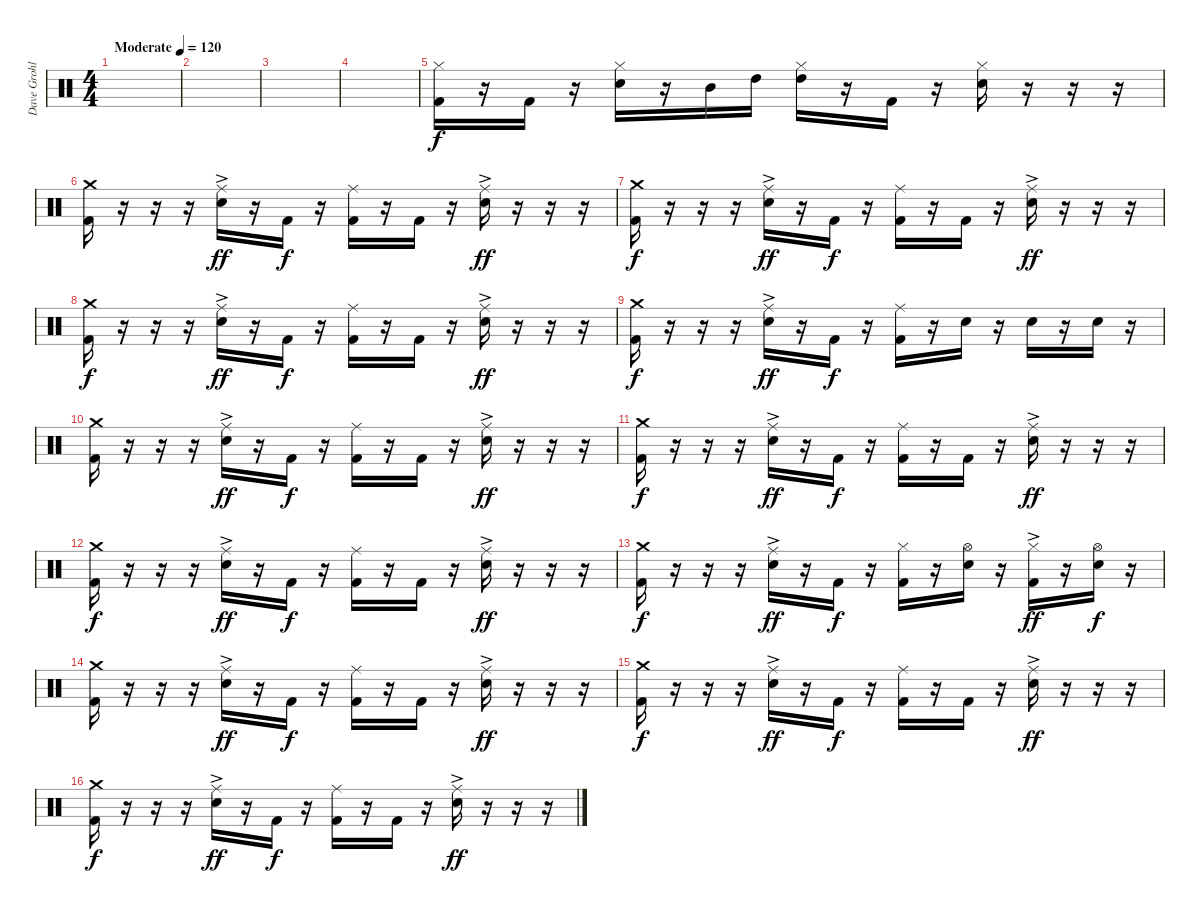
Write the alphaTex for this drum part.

\track ("Dave Grohl" "Dave Grohl") {instrument percussion}
\staff {score}
\articulation defaults
\ts (4 4)
\tempo (120 "Moderate")
\tempo 142
\tempo (120 "Moderate")
\clef neutral
\ks c
|
|
|
|
("Hi-Hat (closed)" "Kick (hit) 2").16 r.16 "Kick (hit) 2".16 r.16 ("Hi-Hat (closed)" "Electric Snare (hit)").16 r.16 "Mid Tom (hit)".16 "High Tom (hit)".16 ("Hi-Hat (closed)" "High Tom (hit)").16 r.16 "Kick (hit) 2".16 r.16 ("Hi-Hat (closed)" "Electric Snare (hit)").16 r.16 r.16 r.16 |
("Crash medium (hit)" "Kick (hit) 2").16 r.16 r.16 r.16 ("Ride (middle)"{ac} "Electric Snare (hit)").16{dy ff} r.16 "Kick (hit) 2".16{dy f} r.16 ("Ride (middle)" "Kick (hit) 2").16 r.16 "Kick (hit) 2".16 r.16 ("Ride (middle)"{ac} "Electric Snare (hit)").16{dy ff} r.16 r.16 r.16 |
("Crash medium (hit)" "Kick (hit) 2").16{dy f} r.16 r.16 r.16 ("Ride (middle)"{ac} "Electric Snare (hit)").16{dy ff} r.16 "Kick (hit) 2".16{dy f} r.16 ("Ride (middle)" "Kick (hit) 2").16 r.16 "Kick (hit) 2".16 r.16 ("Ride (middle)"{ac} "Electric Snare (hit)").16{dy ff} r.16 r.16 r.16 |
("Crash medium (hit)" "Kick (hit) 2").16{dy f} r.16 r.16 r.16 ("Ride (middle)"{ac} "Electric Snare (hit)").16{dy ff} r.16 "Kick (hit) 2".16{dy f} r.16 ("Ride (middle)" "Kick (hit) 2").16 r.16 "Kick (hit) 2".16 r.16 ("Ride (middle)"{ac} "Electric Snare (hit)").16{dy ff} r.16 r.16 r.16 |
("Crash medium (hit)" "Kick (hit) 2").16{dy f} r.16 r.16 r.16 ("Ride (middle)"{ac} "Electric Snare (hit)").16{dy ff} r.16 "Kick (hit) 2".16{dy f} r.16 ("Ride (middle)" "Kick (hit) 2").16 r.16 "Electric Snare (hit)".16 r.16 "Electric Snare (hit)".16 r.16 "Electric Snare (hit)".16 r.16 |
("Crash medium (hit)" "Kick (hit) 2").16 r.16 r.16 r.16 ("Ride (middle)"{ac} "Electric Snare (hit)").16{dy ff} r.16 "Kick (hit) 2".16{dy f} r.16 ("Ride (middle)" "Kick (hit) 2").16 r.16 "Kick (hit) 2".16 r.16 ("Ride (middle)"{ac} "Electric Snare (hit)").16{dy ff} r.16 r.16 r.16 |
("Crash medium (hit)" "Kick (hit) 2").16{dy f} r.16 r.16 r.16 ("Ride (middle)"{ac} "Electric Snare (hit)").16{dy ff} r.16 "Kick (hit) 2".16{dy f} r.16 ("Ride (middle)" "Kick (hit) 2").16 r.16 "Kick (hit) 2".16 r.16 ("Ride (middle)"{ac} "Electric Snare (hit)").16{dy ff} r.16 r.16 r.16 |
("Crash medium (hit)" "Kick (hit) 2").16{dy f} r.16 r.16 r.16 ("Ride (middle)"{ac} "Electric Snare (hit)").16{dy ff} r.16 "Kick (hit) 2".16{dy f} r.16 ("Ride (middle)" "Kick (hit) 2").16 r.16 "Kick (hit) 2".16 r.16 ("Ride (middle)"{ac} "Electric Snare (hit)").16{dy ff} r.16 r.16 r.16 |
("Crash medium (hit)" "Kick (hit) 2").16{dy f} r.16 r.16 r.16 ("Ride (middle)"{ac} "Electric Snare (hit)").16{dy ff} r.16 "Kick (hit) 2".16{dy f} r.16 ("Hi-Hat (closed)" "Kick (hit) 2").16 r.16 ("Hi-Hat (open)" "Electric Snare (hit)").16 r.16 ("Hi-Hat (closed)"{ac} "Kick (hit) 2").16{dy ff} r.16 ("Hi-Hat (open)" "Electric Snare (hit)").16{dy f} r.16 |
("Crash medium (hit)" "Kick (hit) 2").16 r.16 r.16 r.16 ("Ride (middle)"{ac} "Electric Snare (hit)").16{dy ff} r.16 "Kick (hit) 2".16{dy f} r.16 ("Ride (middle)" "Kick (hit) 2").16 r.16 "Kick (hit) 2".16 r.16 ("Ride (middle)"{ac} "Electric Snare (hit)").16{dy ff} r.16 r.16 r.16 |
("Crash medium (hit)" "Kick (hit) 2").16{dy f} r.16 r.16 r.16 ("Ride (middle)"{ac} "Electric Snare (hit)").16{dy ff} r.16 "Kick (hit) 2".16{dy f} r.16 ("Ride (middle)" "Kick (hit) 2").16 r.16 "Kick (hit) 2".16 r.16 ("Ride (middle)"{ac} "Electric Snare (hit)").16{dy ff} r.16 r.16 r.16 |
("Crash medium (hit)" "Kick (hit) 2").16{dy f} r.16 r.16 r.16 ("Ride (middle)"{ac} "Electric Snare (hit)").16{dy ff} r.16 "Kick (hit) 2".16{dy f} r.16 ("Ride (middle)" "Kick (hit) 2").16 r.16 "Kick (hit) 2".16 r.16 ("Ride (middle)"{ac} "Electric Snare (hit)").16{dy ff} r.16 r.16 r.16
